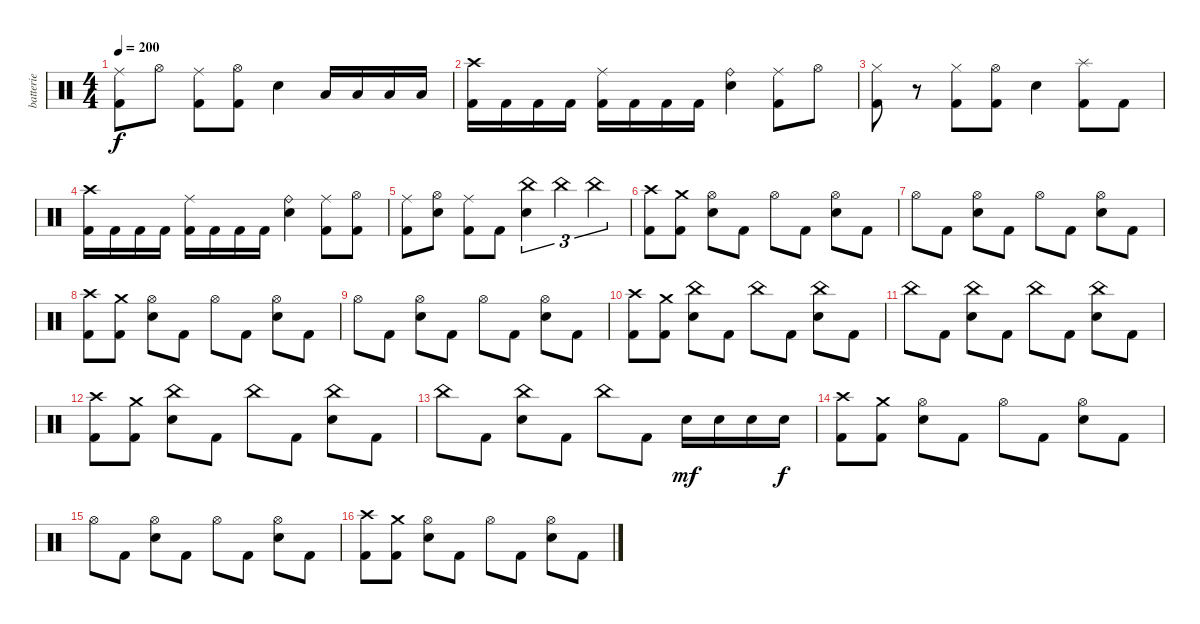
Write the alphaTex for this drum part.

\track ("batterie" "batterie") {instrument percussion}
\staff {score}
\articulation defaults
\ts (4 4)
\tempo 200
\clef neutral
\ks c
("Kick (hit) 2" "Ride (middle)").8{dy f} "Hi-Hat (open)".8 ("Kick (hit) 2" "Ride (middle)").8 ("Kick (hit) 2" "Hi-Hat (open)").8 "Electric Snare (hit)".4 "Low Tom (hit)".16 "Low Tom (hit)".16 "Low Tom (hit)".16 "Low Tom (hit)".16 |
("Kick (hit) 2" "Crash high (hit)").16 "Kick (hit) 2".16 "Kick (hit) 2".16 "Kick (hit) 2".16 ("Kick (hit) 2" "Ride (middle)").16 "Kick (hit) 2".16 "Kick (hit) 2".16 "Kick (hit) 2".16 ("Electric Snare (hit)" "Ride (bell)").4 ("Kick (hit) 2" "Ride (middle)").8 "Hi-Hat (open)".8 |
("Kick (hit) 2" "Hi-Hat (closed)").8 r.8 ("Kick (hit) 2" "Hi-Hat (closed)").8 ("Kick (hit) 2" "Hi-Hat (open)").8 "Electric Snare (hit)".4 ("Kick (hit) 2" "Splash (hit)").8 "Kick (hit) 2".8 |
("Kick (hit) 2" "Crash high (hit)").16 "Kick (hit) 2".16 "Kick (hit) 2".16 "Kick (hit) 2".16 ("Kick (hit) 2" "Ride (middle)").16 "Kick (hit) 2".16 "Kick (hit) 2".16 "Kick (hit) 2".16 ("Electric Snare (hit)" "Ride (bell)").4 ("Kick (hit) 2" "Ride (middle)").8 ("Kick (hit) 2" "Hi-Hat (open)").8 |
("Kick (hit) 2" "Ride (middle)").8 ("Electric Snare (hit)" "Hi-Hat (open)").8 ("Kick (hit) 2" "Ride (middle)").8 "Kick (hit) 2".8 ("Electric Snare (hit)" "China (hit)").4{tu (3 2)} "China (hit)".4{tu (3 2)} "China (hit)".4{tu (3 2)} |
("Kick (hit) 2" "Crash high (hit)").8 ("Kick (hit) 2" "Crash medium (hit)").8 ("Electric Snare (hit)" "Hi-Hat (open)").8 "Kick (hit) 2".8 "Hi-Hat (open)".8 "Kick (hit) 2".8 ("Electric Snare (hit)" "Hi-Hat (open)").8 "Kick (hit) 2".8 |
"Hi-Hat (open)".8 "Kick (hit) 2".8 ("Electric Snare (hit)" "Hi-Hat (open)").8 "Kick (hit) 2".8 "Hi-Hat (open)".8 "Kick (hit) 2".8 ("Electric Snare (hit)" "Hi-Hat (open)").8 "Kick (hit) 2".8 |
("Kick (hit) 2" "Crash high (hit)").8 ("Kick (hit) 2" "Crash medium (hit)").8 ("Electric Snare (hit)" "Hi-Hat (open)").8 "Kick (hit) 2".8 "Hi-Hat (open)".8 "Kick (hit) 2".8 ("Electric Snare (hit)" "Hi-Hat (open)").8 "Kick (hit) 2".8 |
"Hi-Hat (open)".8 "Kick (hit) 2".8 ("Electric Snare (hit)" "Hi-Hat (open)").8 "Kick (hit) 2".8 "Hi-Hat (open)".8 "Kick (hit) 2".8 ("Electric Snare (hit)" "Hi-Hat (open)").8 "Kick (hit) 2".8 |
("Kick (hit) 2" "Crash high (hit)").8 ("Kick (hit) 2" "Crash medium (hit)").8 ("Electric Snare (hit)" "China (hit)").8 "Kick (hit) 2".8 "China (hit)".8 "Kick (hit) 2".8 ("Electric Snare (hit)" "China (hit)").8 "Kick (hit) 2".8 |
"China (hit)".8 "Kick (hit) 2".8 ("Electric Snare (hit)" "China (hit)").8 "Kick (hit) 2".8 "China (hit)".8 "Kick (hit) 2".8 ("Electric Snare (hit)" "China (hit)").8 "Kick (hit) 2".8 |
("Kick (hit) 2" "Crash high (hit)").8 ("Kick (hit) 2" "Crash medium (hit)").8 ("Electric Snare (hit)" "China (hit)").8 "Kick (hit) 2".8 "China (hit)".8 "Kick (hit) 2".8 ("Electric Snare (hit)" "China (hit)").8 "Kick (hit) 2".8 |
"China (hit)".8 "Kick (hit) 2".8 ("Electric Snare (hit)" "China (hit)").8 "Kick (hit) 2".8 "China (hit)".8 "Kick (hit) 2".8 "Electric Snare (hit)".16{dy mf} "Electric Snare (hit)".16 "Electric Snare (hit)".16 "Electric Snare (hit)".16{dy f} |
("Kick (hit) 2" "Crash high (hit)").8 ("Kick (hit) 2" "Crash medium (hit)").8 ("Electric Snare (hit)" "Hi-Hat (open)").8 "Kick (hit) 2".8 "Hi-Hat (open)".8 "Kick (hit) 2".8 ("Electric Snare (hit)" "Hi-Hat (open)").8 "Kick (hit) 2".8 |
"Hi-Hat (open)".8 "Kick (hit) 2".8 ("Electric Snare (hit)" "Hi-Hat (open)").8 "Kick (hit) 2".8 "Hi-Hat (open)".8 "Kick (hit) 2".8 ("Electric Snare (hit)" "Hi-Hat (open)").8 "Kick (hit) 2".8 |
("Kick (hit) 2" "Crash high (hit)").8 ("Kick (hit) 2" "Crash medium (hit)").8 ("Electric Snare (hit)" "Hi-Hat (open)").8 "Kick (hit) 2".8 "Hi-Hat (open)".8 "Kick (hit) 2".8 ("Electric Snare (hit)" "Hi-Hat (open)").8 "Kick (hit) 2".8
